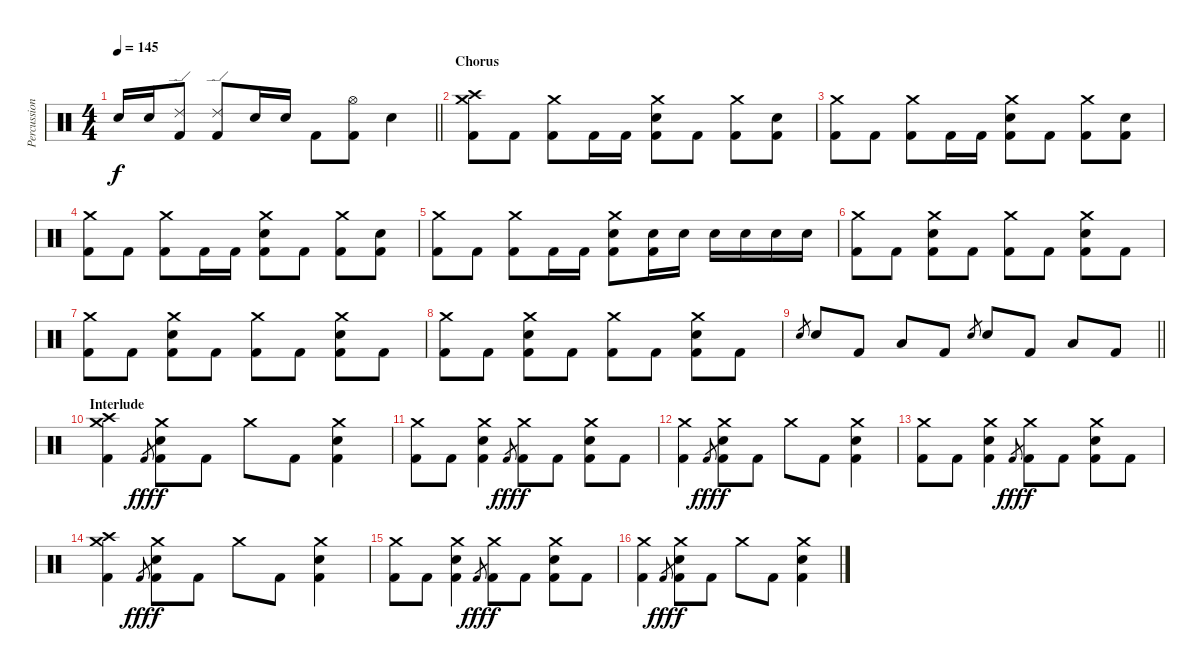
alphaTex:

\track ("Percussion" "Percussion") {instrument percussion}
\staff {score}
\articulation defaults
\ts (4 4)
\tempo 145
\clef neutral
\barLineRight lightlight
\ks c "Electric Snare (hit)".16{dy f} "Electric Snare (hit)".16
("Ride (edge) 2" "Kick (hit) 2").8 ("Ride (edge) 2" "Kick (hit) 2").8 "Electric Snare (hit)".16 "Electric Snare (hit)".16 "Kick (hit) 2".8 ("Hi-Hat (open)" "Kick (hit) 2").8 "Electric Snare (hit)".4 |
\section ("" "Chorus")
("Crash high (hit)" "Crash medium (hit)" "Kick (hit) 2").8 "Kick (hit) 2".8 ("Crash medium (hit)" "Kick (hit) 2").8 "Kick (hit) 2".16 "Kick (hit) 2".16 ("Crash medium (hit)" "Electric Snare (hit)" "Kick (hit) 2").8 "Kick (hit) 2".8 ("Crash medium (hit)" "Kick (hit) 2").8 ("Electric Snare (hit)" "Kick (hit) 2").8 |
("Crash medium (hit)" "Kick (hit) 2").8 "Kick (hit) 2".8 ("Crash medium (hit)" "Kick (hit) 2").8 "Kick (hit) 2".16 "Kick (hit) 2".16 ("Crash medium (hit)" "Electric Snare (hit)" "Kick (hit) 2").8 "Kick (hit) 2".8 ("Crash medium (hit)" "Kick (hit) 2").8 ("Electric Snare (hit)" "Kick (hit) 2").8 |
("Crash medium (hit)" "Kick (hit) 2").8 "Kick (hit) 2".8 ("Crash medium (hit)" "Kick (hit) 2").8 "Kick (hit) 2".16 "Kick (hit) 2".16 ("Crash medium (hit)" "Electric Snare (hit)" "Kick (hit) 2").8 "Kick (hit) 2".8 ("Crash medium (hit)" "Kick (hit) 2").8 ("Electric Snare (hit)" "Kick (hit) 2").8 |
("Crash medium (hit)" "Kick (hit) 2").8 "Kick (hit) 2".8 ("Crash medium (hit)" "Kick (hit) 2").8 "Kick (hit) 2".16 "Kick (hit) 2".16 ("Crash medium (hit)" "Electric Snare (hit)" "Kick (hit) 2").8 ("Electric Snare (hit)" "Kick (hit) 2").16 "Electric Snare (hit)".16 "Electric Snare (hit)".16 "Electric Snare (hit)".16 "Electric Snare (hit)".16 "Electric Snare (hit)".16 |
("Crash medium (hit)" "Kick (hit) 2").8 "Kick (hit) 2".8 ("Crash medium (hit)" "Electric Snare (hit)" "Kick (hit) 2").8 "Kick (hit) 2".8 ("Crash medium (hit)" "Kick (hit) 2").8 "Kick (hit) 2".8 ("Crash medium (hit)" "Electric Snare (hit)" "Kick (hit) 2").8 "Kick (hit) 2".8 |
("Crash medium (hit)" "Kick (hit) 2").8 "Kick (hit) 2".8 ("Crash medium (hit)" "Electric Snare (hit)" "Kick (hit) 2").8 "Kick (hit) 2".8 ("Crash medium (hit)" "Kick (hit) 2").8 "Kick (hit) 2".8 ("Crash medium (hit)" "Electric Snare (hit)" "Kick (hit) 2").8 "Kick (hit) 2".8 |
("Crash medium (hit)" "Kick (hit) 2").8 "Kick (hit) 2".8 ("Crash medium (hit)" "Electric Snare (hit)" "Kick (hit) 2").8 "Kick (hit) 2".8 ("Crash medium (hit)" "Kick (hit) 2").8 "Kick (hit) 2".8 ("Crash medium (hit)" "Electric Snare (hit)" "Kick (hit) 2").8 "Kick (hit) 2".8 |
\barLineRight lightlight "Electric Snare (hit)".8{gr} "Electric Snare (hit)".8 "Kick (hit) 2".8 "Low Floor Tom (hit)".8 "Kick (hit) 2".8 "Electric Snare (hit)".8{gr} "Electric Snare (hit)".8 "Kick (hit) 2".8 "Low Floor Tom (hit)".8 "Kick (hit) 2".8
|
\section ("" "Interlude")
("Crash high (hit)" "Crash medium (hit)" "Kick (hit) 2").4 "Kick (hit) 2".8{gr dy fff} ("Crash medium (hit)" "Electric Snare (hit)" "Kick (hit) 2").8{dy f} "Kick (hit) 2".8 "Crash medium (hit)".8 "Kick (hit) 2".8 ("Crash medium (hit)" "Electric Snare (hit)" "Kick (hit) 2").4 |
("Crash medium (hit)" "Kick (hit) 2").8 "Kick (hit) 2".8 ("Crash medium (hit)" "Electric Snare (hit)" "Kick (hit) 2").4 "Kick (hit) 2".8{gr dy fff} ("Crash medium (hit)" "Kick (hit) 2").8{dy f} "Kick (hit) 2".8 ("Crash medium (hit)" "Electric Snare (hit)" "Kick (hit) 2").8 "Kick (hit) 2".8 |
("Crash medium (hit)" "Kick (hit) 2").4 "Kick (hit) 2".8{gr dy fff} ("Crash medium (hit)" "Electric Snare (hit)" "Kick (hit) 2").8{dy f} "Kick (hit) 2".8 "Crash medium (hit)".8 "Kick (hit) 2".8 ("Crash medium (hit)" "Electric Snare (hit)" "Kick (hit) 2").4 |
("Crash medium (hit)" "Kick (hit) 2").8 "Kick (hit) 2".8 ("Crash medium (hit)" "Electric Snare (hit)" "Kick (hit) 2").4 "Kick (hit) 2".8{gr dy fff} ("Crash medium (hit)" "Kick (hit) 2").8{dy f} "Kick (hit) 2".8 ("Crash medium (hit)" "Electric Snare (hit)" "Kick (hit) 2").8 "Kick (hit) 2".8 |
("Crash high (hit)" "Crash medium (hit)" "Kick (hit) 2").4 "Kick (hit) 2".8{gr dy fff} ("Crash medium (hit)" "Electric Snare (hit)" "Kick (hit) 2").8{dy f} "Kick (hit) 2".8 "Crash medium (hit)".8 "Kick (hit) 2".8 ("Crash medium (hit)" "Electric Snare (hit)" "Kick (hit) 2").4 |
("Crash medium (hit)" "Kick (hit) 2").8 "Kick (hit) 2".8 ("Crash medium (hit)" "Electric Snare (hit)" "Kick (hit) 2").4 "Kick (hit) 2".8{gr dy fff} ("Crash medium (hit)" "Kick (hit) 2").8{dy f} "Kick (hit) 2".8 ("Crash medium (hit)" "Electric Snare (hit)" "Kick (hit) 2").8 "Kick (hit) 2".8 |
("Crash medium (hit)" "Kick (hit) 2").4 "Kick (hit) 2".8{gr dy fff} ("Crash medium (hit)" "Electric Snare (hit)" "Kick (hit) 2").8{dy f} "Kick (hit) 2".8 "Crash medium (hit)".8 "Kick (hit) 2".8 ("Crash medium (hit)" "Electric Snare (hit)" "Kick (hit) 2").4
